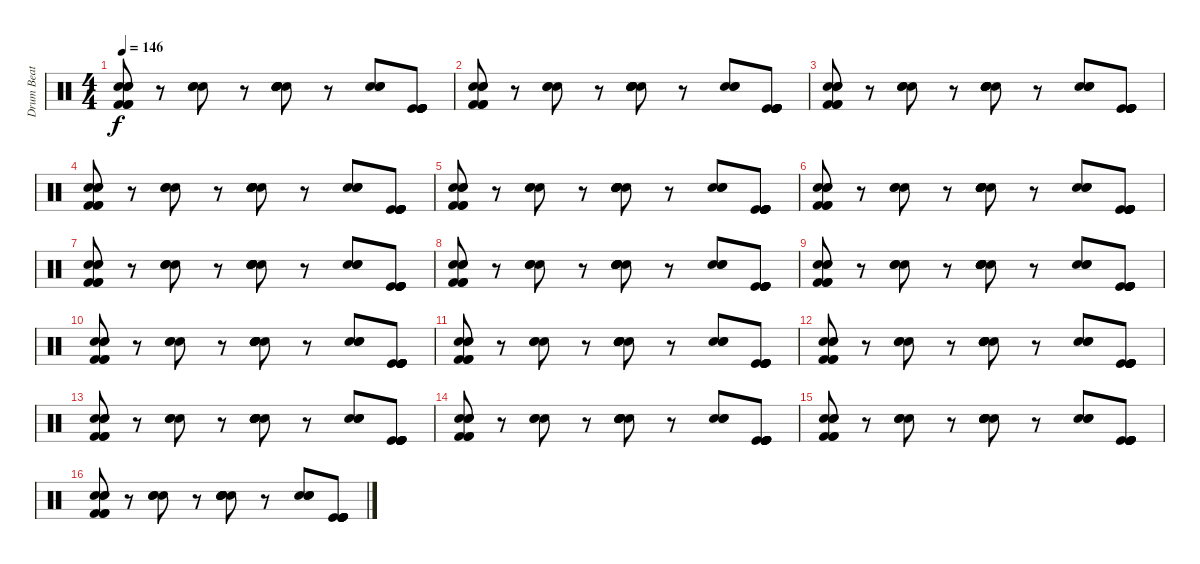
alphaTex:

\track ("Drum Beat" "Drum Beat") {instrument percussion}
\staff {score}
\articulation defaults
\ts (4 4)
\tempo 146
\clef neutral
\ks c
("Hand Clap (hit)" "Hand Clap (hit)" "Hand Clap (hit)" "Kick (hit) 2" "Kick (hit) 2" "Kick (hit) 2").8{dy f} r.8 ("Hand Clap (hit)" "Hand Clap (hit)" "Hand Clap (hit)").8 r.8 ("Hand Clap (hit)" "Hand Clap (hit)" "Hand Clap (hit)" "Electric Snare (hit)" "Electric Snare (hit)" "Electric Snare (hit)").8 r.8 ("Hand Clap (hit)" "Hand Clap (hit)" "Hand Clap (hit)").8 ("Kick (hit)" "Kick (hit)" "Kick (hit)" "Kick (hit)" "Kick (hit)" "Kick (hit)").8 |
("Hand Clap (hit)" "Hand Clap (hit)" "Hand Clap (hit)" "Kick (hit) 2" "Kick (hit) 2" "Kick (hit) 2").8 r.8 ("Hand Clap (hit)" "Hand Clap (hit)" "Hand Clap (hit)").8 r.8 ("Hand Clap (hit)" "Hand Clap (hit)" "Hand Clap (hit)" "Electric Snare (hit)" "Electric Snare (hit)" "Electric Snare (hit)").8 r.8 ("Hand Clap (hit)" "Hand Clap (hit)" "Hand Clap (hit)").8 ("Kick (hit)" "Kick (hit)" "Kick (hit)" "Kick (hit)" "Kick (hit)" "Kick (hit)").8 |
("Hand Clap (hit)" "Hand Clap (hit)" "Hand Clap (hit)" "Kick (hit) 2" "Kick (hit) 2" "Kick (hit) 2").8 r.8 ("Hand Clap (hit)" "Hand Clap (hit)" "Hand Clap (hit)").8 r.8 ("Hand Clap (hit)" "Hand Clap (hit)" "Hand Clap (hit)" "Electric Snare (hit)" "Electric Snare (hit)" "Electric Snare (hit)").8 r.8 ("Hand Clap (hit)" "Hand Clap (hit)" "Hand Clap (hit)").8 ("Kick (hit)" "Kick (hit)" "Kick (hit)" "Kick (hit)" "Kick (hit)" "Kick (hit)").8 |
("Hand Clap (hit)" "Hand Clap (hit)" "Hand Clap (hit)" "Kick (hit) 2" "Kick (hit) 2" "Kick (hit) 2").8 r.8 ("Hand Clap (hit)" "Hand Clap (hit)" "Hand Clap (hit)").8 r.8 ("Hand Clap (hit)" "Hand Clap (hit)" "Hand Clap (hit)" "Electric Snare (hit)" "Electric Snare (hit)" "Electric Snare (hit)").8 r.8 ("Hand Clap (hit)" "Hand Clap (hit)" "Hand Clap (hit)").8 ("Kick (hit)" "Kick (hit)" "Kick (hit)" "Kick (hit)" "Kick (hit)" "Kick (hit)").8 |
("Hand Clap (hit)" "Hand Clap (hit)" "Hand Clap (hit)" "Kick (hit) 2" "Kick (hit) 2" "Kick (hit) 2").8 r.8 ("Hand Clap (hit)" "Hand Clap (hit)" "Hand Clap (hit)").8 r.8 ("Hand Clap (hit)" "Hand Clap (hit)" "Hand Clap (hit)" "Electric Snare (hit)" "Electric Snare (hit)" "Electric Snare (hit)").8 r.8 ("Hand Clap (hit)" "Hand Clap (hit)" "Hand Clap (hit)").8 ("Kick (hit)" "Kick (hit)" "Kick (hit)" "Kick (hit)" "Kick (hit)" "Kick (hit)").8 |
("Hand Clap (hit)" "Hand Clap (hit)" "Hand Clap (hit)" "Kick (hit) 2" "Kick (hit) 2" "Kick (hit) 2").8 r.8 ("Hand Clap (hit)" "Hand Clap (hit)" "Hand Clap (hit)").8 r.8 ("Hand Clap (hit)" "Hand Clap (hit)" "Hand Clap (hit)" "Electric Snare (hit)" "Electric Snare (hit)" "Electric Snare (hit)").8 r.8 ("Hand Clap (hit)" "Hand Clap (hit)" "Hand Clap (hit)").8 ("Kick (hit)" "Kick (hit)" "Kick (hit)" "Kick (hit)" "Kick (hit)" "Kick (hit)").8 |
("Hand Clap (hit)" "Hand Clap (hit)" "Hand Clap (hit)" "Kick (hit) 2" "Kick (hit) 2" "Kick (hit) 2").8 r.8 ("Hand Clap (hit)" "Hand Clap (hit)" "Hand Clap (hit)").8 r.8 ("Hand Clap (hit)" "Hand Clap (hit)" "Hand Clap (hit)" "Electric Snare (hit)" "Electric Snare (hit)" "Electric Snare (hit)").8 r.8 ("Hand Clap (hit)" "Hand Clap (hit)" "Hand Clap (hit)").8 ("Kick (hit)" "Kick (hit)" "Kick (hit)" "Kick (hit)" "Kick (hit)" "Kick (hit)").8 |
("Hand Clap (hit)" "Hand Clap (hit)" "Hand Clap (hit)" "Kick (hit) 2" "Kick (hit) 2" "Kick (hit) 2").8 r.8 ("Hand Clap (hit)" "Hand Clap (hit)" "Hand Clap (hit)").8 r.8 ("Hand Clap (hit)" "Hand Clap (hit)" "Hand Clap (hit)" "Electric Snare (hit)" "Electric Snare (hit)" "Electric Snare (hit)").8 r.8 ("Hand Clap (hit)" "Hand Clap (hit)" "Hand Clap (hit)").8 ("Kick (hit)" "Kick (hit)" "Kick (hit)" "Kick (hit)" "Kick (hit)" "Kick (hit)").8 |
("Hand Clap (hit)" "Hand Clap (hit)" "Hand Clap (hit)" "Kick (hit) 2" "Kick (hit) 2" "Kick (hit) 2").8 r.8 ("Hand Clap (hit)" "Hand Clap (hit)" "Hand Clap (hit)").8 r.8 ("Hand Clap (hit)" "Hand Clap (hit)" "Hand Clap (hit)" "Electric Snare (hit)" "Electric Snare (hit)" "Electric Snare (hit)").8 r.8 ("Hand Clap (hit)" "Hand Clap (hit)" "Hand Clap (hit)").8 ("Kick (hit)" "Kick (hit)" "Kick (hit)" "Kick (hit)" "Kick (hit)" "Kick (hit)").8 |
("Hand Clap (hit)" "Hand Clap (hit)" "Hand Clap (hit)" "Kick (hit) 2" "Kick (hit) 2" "Kick (hit) 2").8 r.8 ("Hand Clap (hit)" "Hand Clap (hit)" "Hand Clap (hit)").8 r.8 ("Hand Clap (hit)" "Hand Clap (hit)" "Hand Clap (hit)" "Electric Snare (hit)" "Electric Snare (hit)" "Electric Snare (hit)").8 r.8 ("Hand Clap (hit)" "Hand Clap (hit)" "Hand Clap (hit)").8 ("Kick (hit)" "Kick (hit)" "Kick (hit)" "Kick (hit)" "Kick (hit)" "Kick (hit)").8 |
("Hand Clap (hit)" "Hand Clap (hit)" "Hand Clap (hit)" "Kick (hit) 2" "Kick (hit) 2" "Kick (hit) 2").8 r.8 ("Hand Clap (hit)" "Hand Clap (hit)" "Hand Clap (hit)").8 r.8 ("Hand Clap (hit)" "Hand Clap (hit)" "Hand Clap (hit)" "Electric Snare (hit)" "Electric Snare (hit)" "Electric Snare (hit)").8 r.8 ("Hand Clap (hit)" "Hand Clap (hit)" "Hand Clap (hit)").8 ("Kick (hit)" "Kick (hit)" "Kick (hit)" "Kick (hit)" "Kick (hit)" "Kick (hit)").8 |
("Hand Clap (hit)" "Hand Clap (hit)" "Hand Clap (hit)" "Kick (hit) 2" "Kick (hit) 2" "Kick (hit) 2").8 r.8 ("Hand Clap (hit)" "Hand Clap (hit)" "Hand Clap (hit)").8 r.8 ("Hand Clap (hit)" "Hand Clap (hit)" "Hand Clap (hit)" "Electric Snare (hit)" "Electric Snare (hit)" "Electric Snare (hit)").8 r.8 ("Hand Clap (hit)" "Hand Clap (hit)" "Hand Clap (hit)").8 ("Kick (hit)" "Kick (hit)" "Kick (hit)" "Kick (hit)" "Kick (hit)" "Kick (hit)").8 |
("Hand Clap (hit)" "Hand Clap (hit)" "Hand Clap (hit)" "Kick (hit) 2" "Kick (hit) 2" "Kick (hit) 2").8 r.8 ("Hand Clap (hit)" "Hand Clap (hit)" "Hand Clap (hit)").8 r.8 ("Hand Clap (hit)" "Hand Clap (hit)" "Hand Clap (hit)" "Electric Snare (hit)" "Electric Snare (hit)" "Electric Snare (hit)").8 r.8 ("Hand Clap (hit)" "Hand Clap (hit)" "Hand Clap (hit)").8 ("Kick (hit)" "Kick (hit)" "Kick (hit)" "Kick (hit)" "Kick (hit)" "Kick (hit)").8 |
("Hand Clap (hit)" "Hand Clap (hit)" "Hand Clap (hit)" "Kick (hit) 2" "Kick (hit) 2" "Kick (hit) 2").8 r.8 ("Hand Clap (hit)" "Hand Clap (hit)" "Hand Clap (hit)").8 r.8 ("Hand Clap (hit)" "Hand Clap (hit)" "Hand Clap (hit)" "Electric Snare (hit)" "Electric Snare (hit)" "Electric Snare (hit)").8 r.8 ("Hand Clap (hit)" "Hand Clap (hit)" "Hand Clap (hit)").8 ("Kick (hit)" "Kick (hit)" "Kick (hit)" "Kick (hit)" "Kick (hit)" "Kick (hit)").8 |
("Hand Clap (hit)" "Hand Clap (hit)" "Hand Clap (hit)" "Kick (hit) 2" "Kick (hit) 2" "Kick (hit) 2").8 r.8 ("Hand Clap (hit)" "Hand Clap (hit)" "Hand Clap (hit)").8 r.8 ("Hand Clap (hit)" "Hand Clap (hit)" "Hand Clap (hit)" "Electric Snare (hit)" "Electric Snare (hit)" "Electric Snare (hit)").8 r.8 ("Hand Clap (hit)" "Hand Clap (hit)" "Hand Clap (hit)").8 ("Kick (hit)" "Kick (hit)" "Kick (hit)" "Kick (hit)" "Kick (hit)" "Kick (hit)").8 |
("Hand Clap (hit)" "Hand Clap (hit)" "Hand Clap (hit)" "Kick (hit) 2" "Kick (hit) 2" "Kick (hit) 2").8 r.8 ("Hand Clap (hit)" "Hand Clap (hit)" "Hand Clap (hit)").8 r.8 ("Hand Clap (hit)" "Hand Clap (hit)" "Hand Clap (hit)" "Electric Snare (hit)" "Electric Snare (hit)" "Electric Snare (hit)").8 r.8 ("Hand Clap (hit)" "Hand Clap (hit)" "Hand Clap (hit)").8 ("Kick (hit)" "Kick (hit)" "Kick (hit)" "Kick (hit)" "Kick (hit)" "Kick (hit)").8
